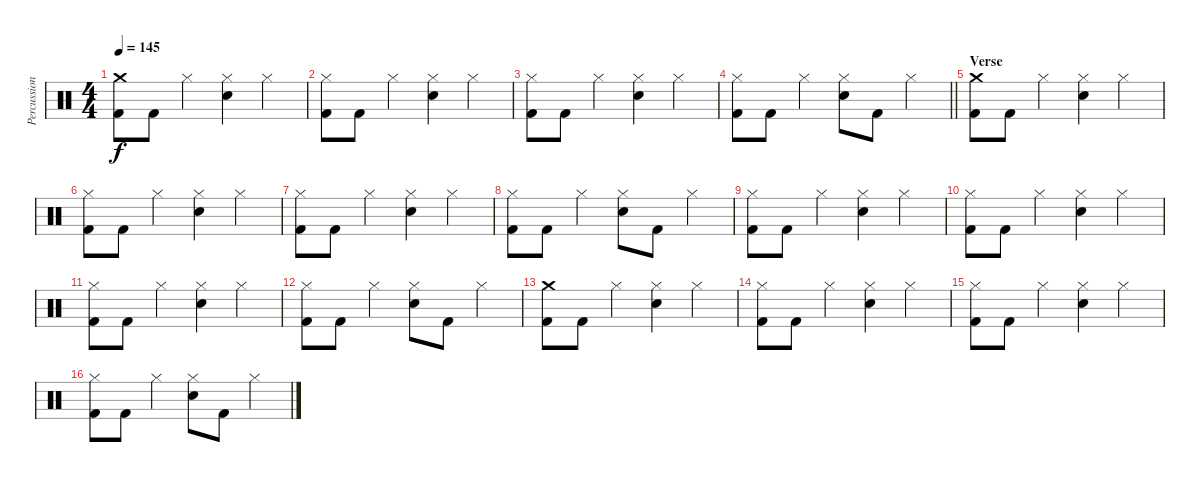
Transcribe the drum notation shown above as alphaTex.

\track ("Percussion" "Percussion") {instrument percussion}
\staff {score}
\articulation defaults
\ts (4 4)
\tempo 145
\clef neutral
\ks c
("Crash medium (hit)" "Kick (hit) 2").8{dy f} "Kick (hit) 2".8 "Hi-Hat (closed)".4 ("Hi-Hat (closed)" "Electric Snare (hit)").4 "Hi-Hat (closed)".4 |
("Hi-Hat (closed)" "Kick (hit) 2").8 "Kick (hit) 2".8 "Hi-Hat (closed)".4 ("Hi-Hat (closed)" "Electric Snare (hit)").4 "Hi-Hat (closed)".4 |
("Hi-Hat (closed)" "Kick (hit) 2").8 "Kick (hit) 2".8 "Hi-Hat (closed)".4 ("Hi-Hat (closed)" "Electric Snare (hit)").4 "Hi-Hat (closed)".4 |
\barLineRight lightlight
("Hi-Hat (closed)" "Kick (hit) 2").8 "Kick (hit) 2".8 "Hi-Hat (closed)".4 ("Hi-Hat (closed)" "Electric Snare (hit)").8 "Kick (hit) 2".8 "Hi-Hat (closed)".4 |
\section ("" "Verse")
("Crash medium (hit)" "Kick (hit) 2").8 "Kick (hit) 2".8 "Hi-Hat (closed)".4 ("Hi-Hat (closed)" "Electric Snare (hit)").4 "Hi-Hat (closed)".4 |
("Hi-Hat (closed)" "Kick (hit) 2").8 "Kick (hit) 2".8 "Hi-Hat (closed)".4 ("Hi-Hat (closed)" "Electric Snare (hit)").4 "Hi-Hat (closed)".4 |
("Hi-Hat (closed)" "Kick (hit) 2").8 "Kick (hit) 2".8 "Hi-Hat (closed)".4 ("Hi-Hat (closed)" "Electric Snare (hit)").4 "Hi-Hat (closed)".4 |
("Hi-Hat (closed)" "Kick (hit) 2").8 "Kick (hit) 2".8 "Hi-Hat (closed)".4 ("Hi-Hat (closed)" "Electric Snare (hit)").8 "Kick (hit) 2".8 "Hi-Hat (closed)".4 |
("Hi-Hat (closed)" "Kick (hit) 2").8 "Kick (hit) 2".8 "Hi-Hat (closed)".4 ("Hi-Hat (closed)" "Electric Snare (hit)").4 "Hi-Hat (closed)".4 |
("Hi-Hat (closed)" "Kick (hit) 2").8 "Kick (hit) 2".8 "Hi-Hat (closed)".4 ("Hi-Hat (closed)" "Electric Snare (hit)").4 "Hi-Hat (closed)".4 |
("Hi-Hat (closed)" "Kick (hit) 2").8 "Kick (hit) 2".8 "Hi-Hat (closed)".4 ("Hi-Hat (closed)" "Electric Snare (hit)").4 "Hi-Hat (closed)".4 |
("Hi-Hat (closed)" "Kick (hit) 2").8 "Kick (hit) 2".8 "Hi-Hat (closed)".4 ("Hi-Hat (closed)" "Electric Snare (hit)").8 "Kick (hit) 2".8 "Hi-Hat (closed)".4 |
("Crash medium (hit)" "Kick (hit) 2").8 "Kick (hit) 2".8 "Hi-Hat (closed)".4 ("Hi-Hat (closed)" "Electric Snare (hit)").4 "Hi-Hat (closed)".4 |
("Hi-Hat (closed)" "Kick (hit) 2").8 "Kick (hit) 2".8 "Hi-Hat (closed)".4 ("Hi-Hat (closed)" "Electric Snare (hit)").4 "Hi-Hat (closed)".4 |
("Hi-Hat (closed)" "Kick (hit) 2").8 "Kick (hit) 2".8 "Hi-Hat (closed)".4 ("Hi-Hat (closed)" "Electric Snare (hit)").4 "Hi-Hat (closed)".4 |
("Hi-Hat (closed)" "Kick (hit) 2").8 "Kick (hit) 2".8 "Hi-Hat (closed)".4 ("Hi-Hat (closed)" "Electric Snare (hit)").8 "Kick (hit) 2".8 "Hi-Hat (closed)".4
